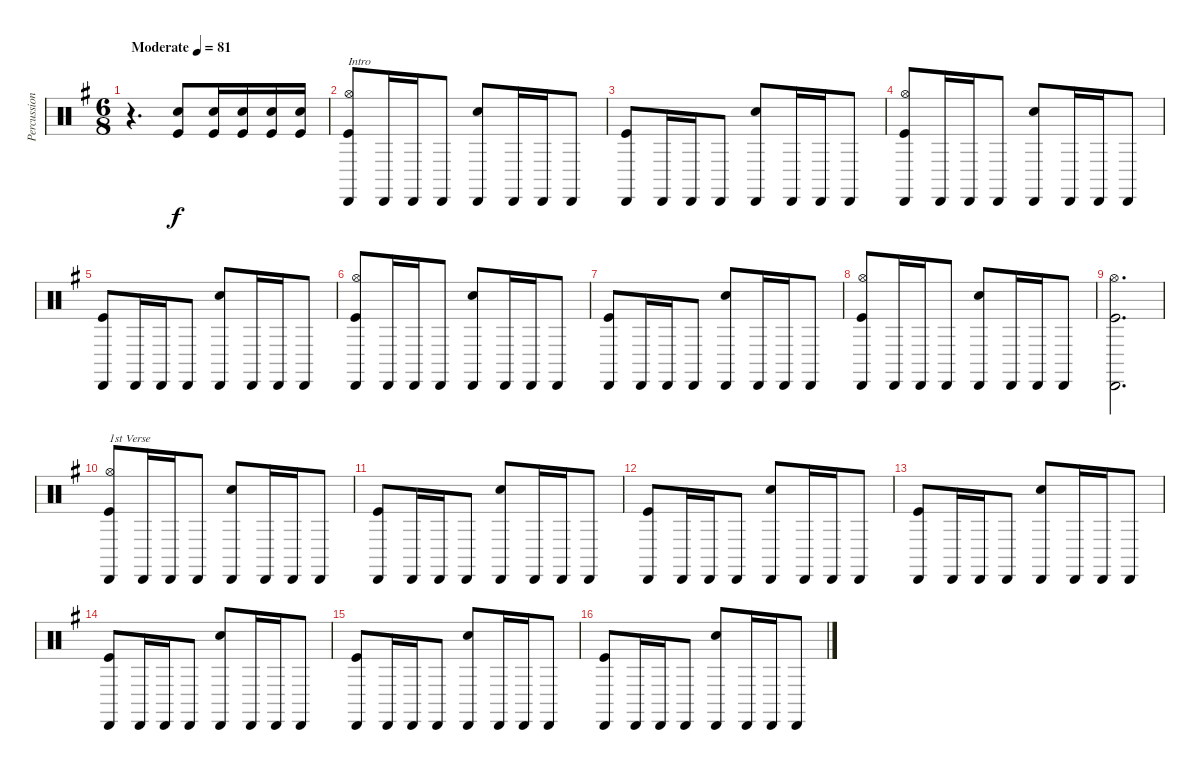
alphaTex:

\track ("Percussion" "Percussion") {instrument percussion}
\staff {score}
\articulation defaults
\ts (6 8)
\tempo (81 "Moderate")
\clef neutral
\ks g
r.4{d dy f} ("Snare (hit) 2" "Kick (hit)").8 ("Snare (hit) 2" "Kick (hit)").16 ("Snare (hit) 2" "Kick (hit)").16 ("Snare (hit) 2" "Kick (hit)").16 ("Snare (hit) 2" "Kick (hit)").16 |
("Cabasa (hit)" "Hi-Hat (open)" "Kick (hit)").8{txt "Intro"} "Cabasa (hit)".16 "Cabasa (hit)".16 "Cabasa (hit)".8 ("Cabasa (hit)" "Snare (hit) 2").8 "Cabasa (hit)".16 "Cabasa (hit)".16 "Cabasa (hit)".8 |
("Cabasa (hit)" "Kick (hit)").8 "Cabasa (hit)".16 "Cabasa (hit)".16 "Cabasa (hit)".8 ("Cabasa (hit)" "Snare (hit) 2").8 "Cabasa (hit)".16 "Cabasa (hit)".16 "Cabasa (hit)".8 |
("Cabasa (hit)" "Hi-Hat (open)" "Kick (hit)").8 "Cabasa (hit)".16 "Cabasa (hit)".16 "Cabasa (hit)".8 ("Cabasa (hit)" "Snare (hit) 2").8 "Cabasa (hit)".16 "Cabasa (hit)".16 "Cabasa (hit)".8 |
("Cabasa (hit)" "Kick (hit)").8 "Cabasa (hit)".16 "Cabasa (hit)".16 "Cabasa (hit)".8 ("Cabasa (hit)" "Snare (hit) 2").8 "Cabasa (hit)".16 "Cabasa (hit)".16 "Cabasa (hit)".8 |
("Cabasa (hit)" "Hi-Hat (open)" "Kick (hit)").8 "Cabasa (hit)".16 "Cabasa (hit)".16 "Cabasa (hit)".8 ("Cabasa (hit)" "Snare (hit) 2").8 "Cabasa (hit)".16 "Cabasa (hit)".16 "Cabasa (hit)".8 |
("Cabasa (hit)" "Kick (hit)").8 "Cabasa (hit)".16 "Cabasa (hit)".16 "Cabasa (hit)".8 ("Cabasa (hit)" "Snare (hit) 2").8 "Cabasa (hit)".16 "Cabasa (hit)".16 "Cabasa (hit)".8 |
("Cabasa (hit)" "Hi-Hat (open)" "Kick (hit)").8 "Cabasa (hit)".16 "Cabasa (hit)".16 "Cabasa (hit)".8 ("Cabasa (hit)" "Snare (hit) 2").8 "Cabasa (hit)".16 "Cabasa (hit)".16 "Cabasa (hit)".8 |
("Cabasa (hit)" "Hi-Hat (open)" "Kick (hit)").2{d} |
("Cabasa (hit)" "Hi-Hat (open)" "Kick (hit)").8{txt "1st Verse"} "Cabasa (hit)".16 "Cabasa (hit)".16 "Cabasa (hit)".8 ("Cabasa (hit)" "Snare (hit) 2").8 "Cabasa (hit)".16 "Cabasa (hit)".16 "Cabasa (hit)".8 |
("Cabasa (hit)" "Kick (hit)").8 "Cabasa (hit)".16 "Cabasa (hit)".16 "Cabasa (hit)".8 ("Cabasa (hit)" "Snare (hit) 2").8 "Cabasa (hit)".16 "Cabasa (hit)".16 "Cabasa (hit)".8 |
("Cabasa (hit)" "Kick (hit)").8 "Cabasa (hit)".16 "Cabasa (hit)".16 "Cabasa (hit)".8 ("Cabasa (hit)" "Snare (hit) 2").8 "Cabasa (hit)".16 "Cabasa (hit)".16 "Cabasa (hit)".8 |
("Cabasa (hit)" "Kick (hit)").8 "Cabasa (hit)".16 "Cabasa (hit)".16 "Cabasa (hit)".8 ("Cabasa (hit)" "Snare (hit) 2").8 "Cabasa (hit)".16 "Cabasa (hit)".16 "Cabasa (hit)".8 |
("Cabasa (hit)" "Kick (hit)").8 "Cabasa (hit)".16 "Cabasa (hit)".16 "Cabasa (hit)".8 ("Cabasa (hit)" "Snare (hit) 2").8 "Cabasa (hit)".16 "Cabasa (hit)".16 "Cabasa (hit)".8 |
("Cabasa (hit)" "Kick (hit)").8 "Cabasa (hit)".16 "Cabasa (hit)".16 "Cabasa (hit)".8 ("Cabasa (hit)" "Snare (hit) 2").8 "Cabasa (hit)".16 "Cabasa (hit)".16 "Cabasa (hit)".8 |
("Cabasa (hit)" "Kick (hit)").8 "Cabasa (hit)".16 "Cabasa (hit)".16 "Cabasa (hit)".8 ("Cabasa (hit)" "Snare (hit) 2").8 "Cabasa (hit)".16 "Cabasa (hit)".16 "Cabasa (hit)".8
